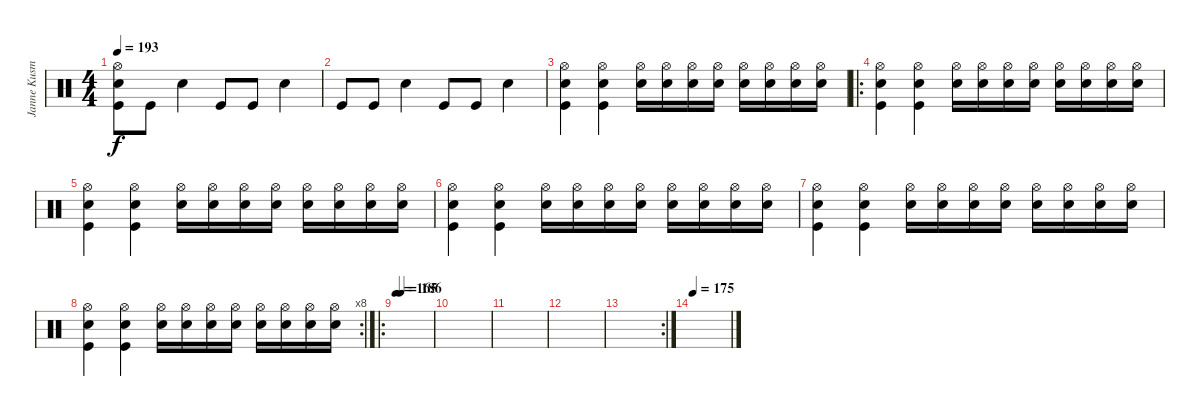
\track ("Janne Kusmin " "Janne Kusm") {instrument percussion}
\staff {score}
\articulation defaults
\ts (4 4)
\tempo 193
\clef neutral
\ks c
("Hi-Hat (open)" "Snare (hit) 2" "Kick (hit)").8{dy f} "Kick (hit)".8 "Snare (hit) 2".4 "Kick (hit)".8 "Kick (hit)".8 "Snare (hit) 2".4 |
"Kick (hit)".8 "Kick (hit)".8 "Snare (hit) 2".4 "Kick (hit)".8 "Kick (hit)".8 "Snare (hit) 2".4 |
("Hi-Hat (open)" "Snare (hit) 2" "Kick (hit)").4 ("Hi-Hat (open)" "Snare (hit) 2" "Kick (hit)").4 ("Snare (hit) 2" "Hi-Hat (open)").16 ("Snare (hit) 2" "Hi-Hat (open)").16 ("Snare (hit) 2" "Hi-Hat (open)").16 ("Snare (hit) 2" "Hi-Hat (open)").16 ("Snare (hit) 2" "Hi-Hat (open)").16 ("Snare (hit) 2" "Hi-Hat (open)").16 ("Snare (hit) 2" "Hi-Hat (open)").16 ("Snare (hit) 2" "Hi-Hat (open)").16 |
\ro
("Hi-Hat (open)" "Snare (hit) 2" "Kick (hit)").4 ("Hi-Hat (open)" "Snare (hit) 2" "Kick (hit)").4 ("Snare (hit) 2" "Hi-Hat (open)").16 ("Snare (hit) 2" "Hi-Hat (open)").16 ("Snare (hit) 2" "Hi-Hat (open)").16 ("Snare (hit) 2" "Hi-Hat (open)").16 ("Snare (hit) 2" "Hi-Hat (open)").16 ("Snare (hit) 2" "Hi-Hat (open)").16 ("Snare (hit) 2" "Hi-Hat (open)").16 ("Snare (hit) 2" "Hi-Hat (open)").16 |
("Hi-Hat (open)" "Snare (hit) 2" "Kick (hit)").4 ("Hi-Hat (open)" "Snare (hit) 2" "Kick (hit)").4 ("Snare (hit) 2" "Hi-Hat (open)").16 ("Snare (hit) 2" "Hi-Hat (open)").16 ("Snare (hit) 2" "Hi-Hat (open)").16 ("Snare (hit) 2" "Hi-Hat (open)").16 ("Snare (hit) 2" "Hi-Hat (open)").16 ("Snare (hit) 2" "Hi-Hat (open)").16 ("Snare (hit) 2" "Hi-Hat (open)").16 ("Snare (hit) 2" "Hi-Hat (open)").16 |
("Hi-Hat (open)" "Snare (hit) 2" "Kick (hit)").4 ("Hi-Hat (open)" "Snare (hit) 2" "Kick (hit)").4 ("Snare (hit) 2" "Hi-Hat (open)").16 ("Snare (hit) 2" "Hi-Hat (open)").16 ("Snare (hit) 2" "Hi-Hat (open)").16 ("Snare (hit) 2" "Hi-Hat (open)").16 ("Snare (hit) 2" "Hi-Hat (open)").16 ("Snare (hit) 2" "Hi-Hat (open)").16 ("Snare (hit) 2" "Hi-Hat (open)").16 ("Snare (hit) 2" "Hi-Hat (open)").16 |
("Hi-Hat (open)" "Snare (hit) 2" "Kick (hit)").4 ("Hi-Hat (open)" "Snare (hit) 2" "Kick (hit)").4 ("Snare (hit) 2" "Hi-Hat (open)").16 ("Snare (hit) 2" "Hi-Hat (open)").16 ("Snare (hit) 2" "Hi-Hat (open)").16 ("Snare (hit) 2" "Hi-Hat (open)").16 ("Snare (hit) 2" "Hi-Hat (open)").16 ("Snare (hit) 2" "Hi-Hat (open)").16 ("Snare (hit) 2" "Hi-Hat (open)").16 ("Snare (hit) 2" "Hi-Hat (open)").16 |
\rc 8
("Hi-Hat (open)" "Snare (hit) 2" "Kick (hit)").4 ("Hi-Hat (open)" "Snare (hit) 2" "Kick (hit)").4 ("Snare (hit) 2" "Hi-Hat (open)").16 ("Snare (hit) 2" "Hi-Hat (open)").16 ("Snare (hit) 2" "Hi-Hat (open)").16 ("Snare (hit) 2" "Hi-Hat (open)").16 ("Snare (hit) 2" "Hi-Hat (open)").16 ("Snare (hit) 2" "Hi-Hat (open)").16 ("Snare (hit) 2" "Hi-Hat (open)").16 ("Snare (hit) 2" "Hi-Hat (open)").16 |
\ro
\tempo 165
\tempo (186 0.125)
|
|
|
|
\rc 2
|
\tempo 175
